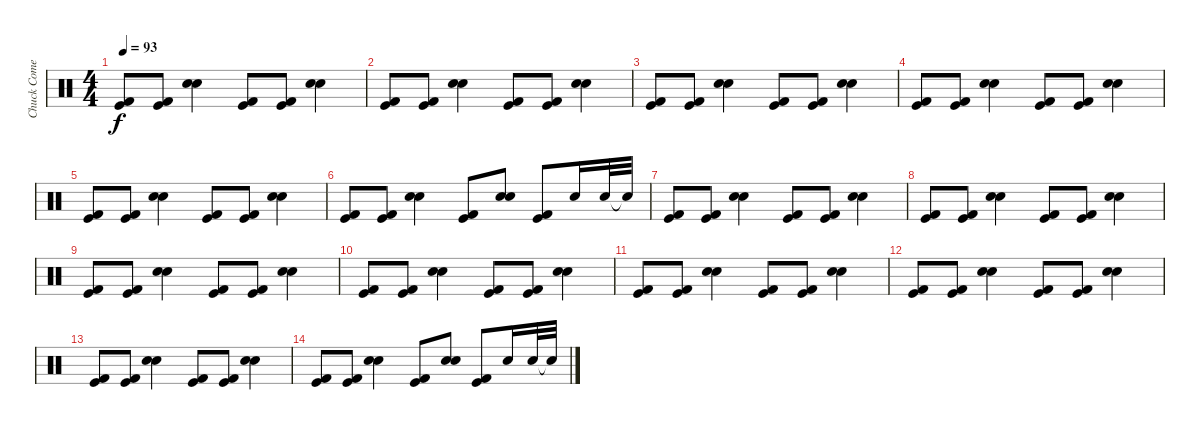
\track ("Chuck Comeau" "Chuck Come") {instrument percussion}
\staff {score}
\articulation defaults
\ts (4 4)
\tempo 93
\clef neutral
\ks c
("Kick (hit) 2" "Kick (hit)").8{dy f} ("Kick (hit) 2" "Kick (hit)").8 ("Electric Snare (hit)" "Snare (hit) 2").4 ("Kick (hit) 2" "Kick (hit)").8 ("Kick (hit) 2" "Kick (hit)").8 ("Electric Snare (hit)" "Snare (hit) 2").4 |
("Kick (hit) 2" "Kick (hit)").8 ("Kick (hit) 2" "Kick (hit)").8 ("Electric Snare (hit)" "Snare (hit) 2").4 ("Kick (hit) 2" "Kick (hit)").8 ("Kick (hit) 2" "Kick (hit)").8 ("Electric Snare (hit)" "Snare (hit) 2").4 |
("Kick (hit) 2" "Kick (hit)").8 ("Kick (hit) 2" "Kick (hit)").8 ("Electric Snare (hit)" "Snare (hit) 2").4 ("Kick (hit) 2" "Kick (hit)").8 ("Kick (hit) 2" "Kick (hit)").8 ("Electric Snare (hit)" "Snare (hit) 2").4 |
("Kick (hit) 2" "Kick (hit)").8 ("Kick (hit) 2" "Kick (hit)").8 ("Electric Snare (hit)" "Snare (hit) 2").4 ("Kick (hit) 2" "Kick (hit)").8 ("Kick (hit) 2" "Kick (hit)").8 ("Electric Snare (hit)" "Snare (hit) 2").4 |
("Kick (hit) 2" "Kick (hit)").8 ("Kick (hit) 2" "Kick (hit)").8 ("Electric Snare (hit)" "Snare (hit) 2").4 ("Kick (hit) 2" "Kick (hit)").8 ("Kick (hit) 2" "Kick (hit)").8 ("Electric Snare (hit)" "Snare (hit) 2").4 |
("Kick (hit) 2" "Kick (hit)").8 ("Kick (hit) 2" "Kick (hit)").8 ("Electric Snare (hit)" "Snare (hit) 2").4 ("Kick (hit)" "Kick (hit) 2").8 ("Electric Snare (hit)" "Snare (hit) 2").8 ("Kick (hit)" "Kick (hit) 2").8 "Electric Snare (hit)".16 "Electric Snare (hit)".32 "Electric Snare (hit)"{t}.32 |
("Kick (hit) 2" "Kick (hit)").8 ("Kick (hit) 2" "Kick (hit)").8 ("Electric Snare (hit)" "Snare (hit) 2").4 ("Kick (hit) 2" "Kick (hit)").8 ("Kick (hit) 2" "Kick (hit)").8 ("Electric Snare (hit)" "Snare (hit) 2").4 |
("Kick (hit) 2" "Kick (hit)").8 ("Kick (hit) 2" "Kick (hit)").8 ("Electric Snare (hit)" "Snare (hit) 2").4 ("Kick (hit) 2" "Kick (hit)").8 ("Kick (hit) 2" "Kick (hit)").8 ("Electric Snare (hit)" "Snare (hit) 2").4 |
("Kick (hit) 2" "Kick (hit)").8 ("Kick (hit) 2" "Kick (hit)").8 ("Electric Snare (hit)" "Snare (hit) 2").4 ("Kick (hit) 2" "Kick (hit)").8 ("Kick (hit) 2" "Kick (hit)").8 ("Electric Snare (hit)" "Snare (hit) 2").4 |
("Kick (hit) 2" "Kick (hit)").8 ("Kick (hit) 2" "Kick (hit)").8 ("Electric Snare (hit)" "Snare (hit) 2").4 ("Kick (hit) 2" "Kick (hit)").8 ("Kick (hit) 2" "Kick (hit)").8 ("Electric Snare (hit)" "Snare (hit) 2").4 |
("Kick (hit) 2" "Kick (hit)").8 ("Kick (hit) 2" "Kick (hit)").8 ("Electric Snare (hit)" "Snare (hit) 2").4 ("Kick (hit) 2" "Kick (hit)").8 ("Kick (hit) 2" "Kick (hit)").8 ("Electric Snare (hit)" "Snare (hit) 2").4 |
("Kick (hit) 2" "Kick (hit)").8 ("Kick (hit) 2" "Kick (hit)").8 ("Electric Snare (hit)" "Snare (hit) 2").4 ("Kick (hit) 2" "Kick (hit)").8 ("Kick (hit) 2" "Kick (hit)").8 ("Electric Snare (hit)" "Snare (hit) 2").4 |
("Kick (hit) 2" "Kick (hit)").8 ("Kick (hit) 2" "Kick (hit)").8 ("Electric Snare (hit)" "Snare (hit) 2").4 ("Kick (hit) 2" "Kick (hit)").8 ("Kick (hit) 2" "Kick (hit)").8 ("Electric Snare (hit)" "Snare (hit) 2").4 |
("Kick (hit) 2" "Kick (hit)").8 ("Kick (hit) 2" "Kick (hit)").8 ("Electric Snare (hit)" "Snare (hit) 2").4 ("Kick (hit)" "Kick (hit) 2").8 ("Electric Snare (hit)" "Snare (hit) 2").8 ("Kick (hit)" "Kick (hit) 2").8 "Electric Snare (hit)".16 "Electric Snare (hit)".32 "Electric Snare (hit)"{t}.32
